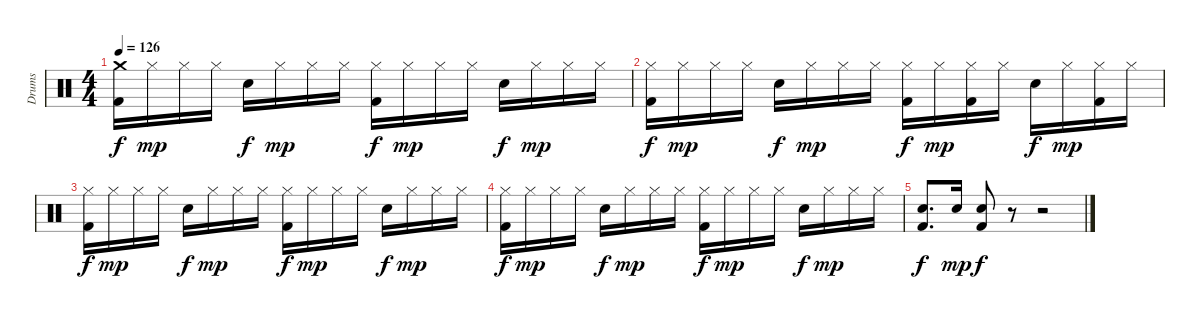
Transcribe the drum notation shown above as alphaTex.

\track ("Drums" "Drums") {instrument percussion}
\staff {score}
\articulation defaults
\ts (4 4)
\tempo 126
\clef neutral
\ks c
("Crash medium (hit)" "Kick (hit) 2").16{dy f} "Hi-Hat (closed)".16{dy mp} "Hi-Hat (closed)".16 "Hi-Hat (closed)".16 "Snare (hit) 2".16{dy f} "Hi-Hat (closed)".16{dy mp} "Hi-Hat (closed)".16 "Hi-Hat (closed)".16 ("Hi-Hat (closed)" "Kick (hit) 2").16{dy f} "Hi-Hat (closed)".16{dy mp} "Hi-Hat (closed)".16 "Hi-Hat (closed)".16 "Snare (hit) 2".16{dy f} "Hi-Hat (closed)".16{dy mp} "Hi-Hat (closed)".16 "Hi-Hat (closed)".16 |
("Hi-Hat (closed)" "Kick (hit) 2").16{dy f} "Hi-Hat (closed)".16{dy mp} "Hi-Hat (closed)".16 "Hi-Hat (closed)".16 "Snare (hit) 2".16{dy f} "Hi-Hat (closed)".16{dy mp} "Hi-Hat (closed)".16 "Hi-Hat (closed)".16 ("Hi-Hat (closed)" "Kick (hit) 2").16{dy f} "Hi-Hat (closed)".16{dy mp} ("Hi-Hat (closed)" "Kick (hit) 2").16 "Hi-Hat (closed)".16 "Snare (hit) 2".16{dy f} "Hi-Hat (closed)".16{dy mp} ("Hi-Hat (closed)" "Kick (hit) 2").16 "Hi-Hat (closed)".16 |
("Hi-Hat (closed)" "Kick (hit) 2").16{dy f} "Hi-Hat (closed)".16{dy mp} "Hi-Hat (closed)".16 "Hi-Hat (closed)".16 "Snare (hit) 2".16{dy f} "Hi-Hat (closed)".16{dy mp} "Hi-Hat (closed)".16 "Hi-Hat (closed)".16 ("Hi-Hat (closed)" "Kick (hit) 2").16{dy f} "Hi-Hat (closed)".16{dy mp} "Hi-Hat (closed)".16 "Hi-Hat (closed)".16 "Snare (hit) 2".16{dy f} "Hi-Hat (closed)".16{dy mp} "Hi-Hat (closed)".16 "Hi-Hat (closed)".16 |
("Hi-Hat (closed)" "Kick (hit) 2").16{dy f} "Hi-Hat (closed)".16{dy mp} "Hi-Hat (closed)".16 "Hi-Hat (closed)".16 "Snare (hit) 2".16{dy f} "Hi-Hat (closed)".16{dy mp} "Hi-Hat (closed)".16 "Hi-Hat (closed)".16 ("Hi-Hat (closed)" "Kick (hit) 2").16{dy f} "Hi-Hat (closed)".16{dy mp} "Hi-Hat (closed)".16 "Hi-Hat (closed)".16 "Snare (hit) 2".16{dy f} "Hi-Hat (closed)".16{dy mp} "Hi-Hat (closed)".16 "Hi-Hat (closed)".16 |
("Snare (hit) 2" "Kick (hit) 2").8{d dy f} "Snare (hit) 2".16{dy mp} ("Snare (hit) 2" "Kick (hit) 2").8{dy f} r.8 r.2
